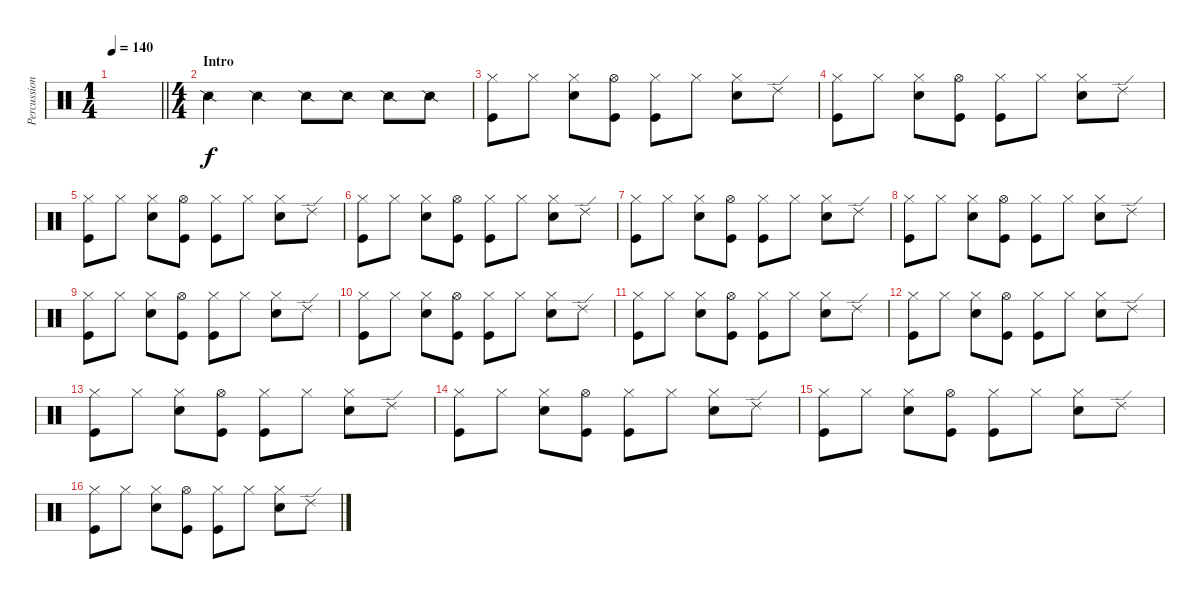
\track ("Percussion" "Percussion") {instrument percussion}
\staff {score}
\articulation defaults
\ts (1 4)
\tempo 140
\clef neutral
\barLineRight lightlight
\ks c
|
\ts (4 4)
\section ("" "Intro")
"Snare (side stick) 2".4 "Snare (side stick) 2".4 "Snare (side stick) 2".8 "Snare (side stick) 2".8 "Snare (side stick) 2".8 "Snare (side stick) 2".8 |
("Hi-Hat (closed)" "Kick (hit)").8 "Hi-Hat (closed)".8 ("Hi-Hat (closed)" "Snare (hit) 2").8 ("Hi-Hat (open)" "Kick (hit)").8 ("Hi-Hat (closed)" "Kick (hit)").8 "Hi-Hat (closed)".8 ("Hi-Hat (closed)" "Snare (hit) 2").8 "Ride (edge) 2".8 |
("Hi-Hat (closed)" "Kick (hit)").8 "Hi-Hat (closed)".8 ("Hi-Hat (closed)" "Snare (hit) 2").8 ("Hi-Hat (open)" "Kick (hit)").8 ("Hi-Hat (closed)" "Kick (hit)").8 "Hi-Hat (closed)".8 ("Hi-Hat (closed)" "Snare (hit) 2").8 "Ride (edge) 2".8 |
("Hi-Hat (closed)" "Kick (hit)").8 "Hi-Hat (closed)".8 ("Hi-Hat (closed)" "Snare (hit) 2").8 ("Hi-Hat (open)" "Kick (hit)").8 ("Hi-Hat (closed)" "Kick (hit)").8 "Hi-Hat (closed)".8 ("Hi-Hat (closed)" "Snare (hit) 2").8 "Ride (edge) 2".8 |
("Hi-Hat (closed)" "Kick (hit)").8 "Hi-Hat (closed)".8 ("Hi-Hat (closed)" "Snare (hit) 2").8 ("Hi-Hat (open)" "Kick (hit)").8 ("Hi-Hat (closed)" "Kick (hit)").8 "Hi-Hat (closed)".8 ("Hi-Hat (closed)" "Snare (hit) 2").8 "Ride (edge) 2".8 |
("Hi-Hat (closed)" "Kick (hit)").8 "Hi-Hat (closed)".8 ("Hi-Hat (closed)" "Snare (hit) 2").8 ("Hi-Hat (open)" "Kick (hit)").8 ("Hi-Hat (closed)" "Kick (hit)").8 "Hi-Hat (closed)".8 ("Hi-Hat (closed)" "Snare (hit) 2").8 "Ride (edge) 2".8 |
("Hi-Hat (closed)" "Kick (hit)").8 "Hi-Hat (closed)".8 ("Hi-Hat (closed)" "Snare (hit) 2").8 ("Hi-Hat (open)" "Kick (hit)").8 ("Hi-Hat (closed)" "Kick (hit)").8 "Hi-Hat (closed)".8 ("Hi-Hat (closed)" "Snare (hit) 2").8 "Ride (edge) 2".8 |
("Hi-Hat (closed)" "Kick (hit)").8 "Hi-Hat (closed)".8 ("Hi-Hat (closed)" "Snare (hit) 2").8 ("Hi-Hat (open)" "Kick (hit)").8 ("Hi-Hat (closed)" "Kick (hit)").8 "Hi-Hat (closed)".8 ("Hi-Hat (closed)" "Snare (hit) 2").8 "Ride (edge) 2".8 |
("Hi-Hat (closed)" "Kick (hit)").8 "Hi-Hat (closed)".8 ("Hi-Hat (closed)" "Snare (hit) 2").8 ("Hi-Hat (open)" "Kick (hit)").8 ("Hi-Hat (closed)" "Kick (hit)").8 "Hi-Hat (closed)".8 ("Hi-Hat (closed)" "Snare (hit) 2").8 "Ride (edge) 2".8 |
("Hi-Hat (closed)" "Kick (hit)").8 "Hi-Hat (closed)".8 ("Hi-Hat (closed)" "Snare (hit) 2").8 ("Hi-Hat (open)" "Kick (hit)").8 ("Hi-Hat (closed)" "Kick (hit)").8 "Hi-Hat (closed)".8 ("Hi-Hat (closed)" "Snare (hit) 2").8 "Ride (edge) 2".8 |
("Hi-Hat (closed)" "Kick (hit)").8 "Hi-Hat (closed)".8 ("Hi-Hat (closed)" "Snare (hit) 2").8 ("Hi-Hat (open)" "Kick (hit)").8 ("Hi-Hat (closed)" "Kick (hit)").8 "Hi-Hat (closed)".8 ("Hi-Hat (closed)" "Snare (hit) 2").8 "Ride (edge) 2".8 |
("Hi-Hat (closed)" "Kick (hit)").8 "Hi-Hat (closed)".8 ("Hi-Hat (closed)" "Snare (hit) 2").8 ("Hi-Hat (open)" "Kick (hit)").8 ("Hi-Hat (closed)" "Kick (hit)").8 "Hi-Hat (closed)".8 ("Hi-Hat (closed)" "Snare (hit) 2").8 "Ride (edge) 2".8 |
("Hi-Hat (closed)" "Kick (hit)").8 "Hi-Hat (closed)".8 ("Hi-Hat (closed)" "Snare (hit) 2").8 ("Hi-Hat (open)" "Kick (hit)").8 ("Hi-Hat (closed)" "Kick (hit)").8 "Hi-Hat (closed)".8 ("Hi-Hat (closed)" "Snare (hit) 2").8 "Ride (edge) 2".8 |
("Hi-Hat (closed)" "Kick (hit)").8 "Hi-Hat (closed)".8 ("Hi-Hat (closed)" "Snare (hit) 2").8 ("Hi-Hat (open)" "Kick (hit)").8 ("Hi-Hat (closed)" "Kick (hit)").8 "Hi-Hat (closed)".8 ("Hi-Hat (closed)" "Snare (hit) 2").8 "Ride (edge) 2".8 |
("Hi-Hat (closed)" "Kick (hit)").8 "Hi-Hat (closed)".8 ("Hi-Hat (closed)" "Snare (hit) 2").8 ("Hi-Hat (open)" "Kick (hit)").8 ("Hi-Hat (closed)" "Kick (hit)").8 "Hi-Hat (closed)".8 ("Hi-Hat (closed)" "Snare (hit) 2").8 "Ride (edge) 2".8
